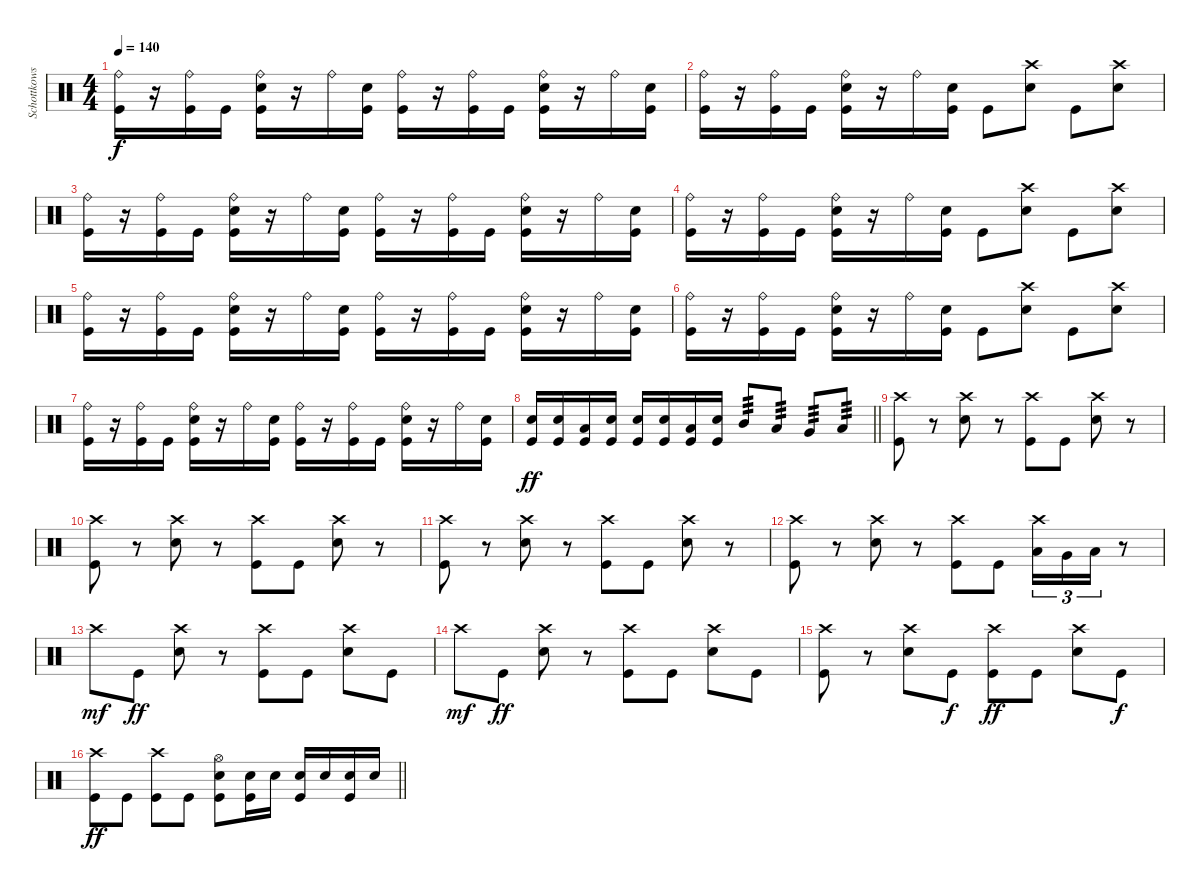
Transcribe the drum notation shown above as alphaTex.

\track ("Schottkowski" "Schottkows") {instrument percussion}
\staff {score}
\articulation defaults
\ts (4 4)
\section ("" "")
\tempo 140
\clef neutral
\ks c
("Ride (bell)" "Kick (hit)").16{dy f} r.16 ("Ride (bell)" "Kick (hit)").16 "Kick (hit)".16 ("Ride (bell)" "Snare (hit) 2" "Kick (hit)").16 r.16 "Ride (bell)".16 ("Snare (hit) 2" "Kick (hit)").16 ("Ride (bell)" "Kick (hit)").16 r.16 ("Ride (bell)" "Kick (hit)").16 "Kick (hit)".16 ("Ride (bell)" "Snare (hit) 2" "Kick (hit)").16 r.16 "Ride (bell)".16 ("Snare (hit) 2" "Kick (hit)").16 |
("Ride (bell)" "Kick (hit)").16 r.16 ("Ride (bell)" "Kick (hit)").16 "Kick (hit)".16 ("Ride (bell)" "Snare (hit) 2" "Kick (hit)").16 r.16 "Ride (bell)".16 ("Snare (hit) 2" "Kick (hit)").16 "Kick (hit)".8 ("Crash high (hit)" "Snare (hit) 2").8 "Kick (hit)".8 ("Crash high (hit)" "Snare (hit) 2").8 |
("Ride (bell)" "Kick (hit)").16 r.16 ("Ride (bell)" "Kick (hit)").16 "Kick (hit)".16 ("Ride (bell)" "Snare (hit) 2" "Kick (hit)").16 r.16 "Ride (bell)".16 ("Snare (hit) 2" "Kick (hit)").16 ("Ride (bell)" "Kick (hit)").16 r.16 ("Ride (bell)" "Kick (hit)").16 "Kick (hit)".16 ("Ride (bell)" "Snare (hit) 2" "Kick (hit)").16 r.16 "Ride (bell)".16 ("Snare (hit) 2" "Kick (hit)").16 |
("Ride (bell)" "Kick (hit)").16 r.16 ("Ride (bell)" "Kick (hit)").16 "Kick (hit)".16 ("Ride (bell)" "Snare (hit) 2" "Kick (hit)").16 r.16 "Ride (bell)".16 ("Snare (hit) 2" "Kick (hit)").16 "Kick (hit)".8 ("Crash high (hit)" "Snare (hit) 2").8 "Kick (hit)".8 ("Crash high (hit)" "Snare (hit) 2").8 |
("Ride (bell)" "Kick (hit)").16 r.16 ("Ride (bell)" "Kick (hit)").16 "Kick (hit)".16 ("Ride (bell)" "Snare (hit) 2" "Kick (hit)").16 r.16 "Ride (bell)".16 ("Snare (hit) 2" "Kick (hit)").16 ("Ride (bell)" "Kick (hit)").16 r.16 ("Ride (bell)" "Kick (hit)").16 "Kick (hit)".16 ("Ride (bell)" "Snare (hit) 2" "Kick (hit)").16 r.16 "Ride (bell)".16 ("Snare (hit) 2" "Kick (hit)").16 |
("Ride (bell)" "Kick (hit)").16 r.16 ("Ride (bell)" "Kick (hit)").16 "Kick (hit)".16 ("Ride (bell)" "Snare (hit) 2" "Kick (hit)").16 r.16 "Ride (bell)".16 ("Snare (hit) 2" "Kick (hit)").16 "Kick (hit)".8 ("Crash high (hit)" "Snare (hit) 2").8 "Kick (hit)".8 ("Crash high (hit)" "Snare (hit) 2").8 |
("Ride (bell)" "Kick (hit)").16 r.16 ("Ride (bell)" "Kick (hit)").16 "Kick (hit)".16 ("Ride (bell)" "Snare (hit) 2" "Kick (hit)").16 r.16 "Ride (bell)".16 ("Snare (hit) 2" "Kick (hit)").16 ("Ride (bell)" "Kick (hit)").16 r.16 ("Ride (bell)" "Kick (hit)").16 "Kick (hit)".16 ("Ride (bell)" "Snare (hit) 2" "Kick (hit)").16 r.16 "Ride (bell)".16 ("Snare (hit) 2" "Kick (hit)").16 |
\barLineRight lightlight
("Snare (hit) 2" "Kick (hit)").16{dy ff} ("Snare (hit) 2" "Kick (hit)").16 ("Low Tom (hit)" "Kick (hit)").16 ("Snare (hit) 2" "Kick (hit)").16 ("Snare (hit) 2" "Kick (hit)").16 ("Snare (hit) 2" "Kick (hit)").16 ("Low Tom (hit)" "Kick (hit)").16 ("Snare (hit) 2" "Kick (hit)").16 "Mid Tom (hit)".8{tp 3} "Low Tom (hit)".8{tp 3} "Very Low Tom (hit)".8{tp 3} "Low Floor Tom (hit)".8{tp 3} |
\section ("" "")
("Crash high (hit)" "Kick (hit)").8 r.8 ("Crash high (hit)" "Snare (hit) 2").8 r.8 ("Crash high (hit)" "Kick (hit)").8 "Kick (hit)".8 ("Crash high (hit)" "Snare (hit) 2").8 r.8 |
("Crash high (hit)" "Kick (hit)").8 r.8 ("Crash high (hit)" "Snare (hit) 2").8 r.8 ("Crash high (hit)" "Kick (hit)").8 "Kick (hit)".8 ("Crash high (hit)" "Snare (hit) 2").8 r.8 |
("Crash high (hit)" "Kick (hit)").8 r.8 ("Crash high (hit)" "Snare (hit) 2").8 r.8 ("Crash high (hit)" "Kick (hit)").8 "Kick (hit)".8 ("Crash high (hit)" "Snare (hit) 2").8 r.8 |
("Crash high (hit)" "Kick (hit)").8 r.8 ("Crash high (hit)" "Snare (hit) 2").8 r.8 ("Crash high (hit)" "Kick (hit)").8 "Kick (hit)".8 ("Crash high (hit)" "Low Tom (hit)").16{tu (3 2)} "Very Low Tom (hit)".16{tu (3 2)} "Low Floor Tom (hit)".16{tu (3 2)} r.8 |
"Crash high (hit)".8{dy mf} "Kick (hit)".8{dy ff} ("Crash high (hit)" "Snare (hit) 2").8 r.8 ("Crash high (hit)" "Kick (hit)").8 "Kick (hit)".8 ("Crash high (hit)" "Snare (hit) 2").8 "Kick (hit)".8 |
"Crash high (hit)".8{dy mf} "Kick (hit)".8{dy ff} ("Crash high (hit)" "Snare (hit) 2").8 r.8 ("Crash high (hit)" "Kick (hit)").8 "Kick (hit)".8 ("Crash high (hit)" "Snare (hit) 2").8 "Kick (hit)".8 |
("Crash high (hit)" "Kick (hit)").8 r.8 ("Crash high (hit)" "Snare (hit) 2").8 "Kick (hit)".8{dy f} ("Crash high (hit)" "Kick (hit)").8{dy ff} "Kick (hit)".8 ("Crash high (hit)" "Snare (hit) 2").8 "Kick (hit)".8{dy f} |
\barLineRight lightlight
("Crash high (hit)" "Kick (hit)").8{dy ff} "Kick (hit)".8 ("Crash high (hit)" "Kick (hit)").8 "Kick (hit)".8 ("Hi-Hat (open)" "Snare (hit) 2" "Kick (hit)").8 ("Snare (hit) 2" "Kick (hit)").16 "Snare (hit) 2".16 ("Snare (hit) 2" "Kick (hit)").16 "Snare (hit) 2".16 ("Snare (hit) 2" "Kick (hit)").16 "Snare (hit) 2".16
